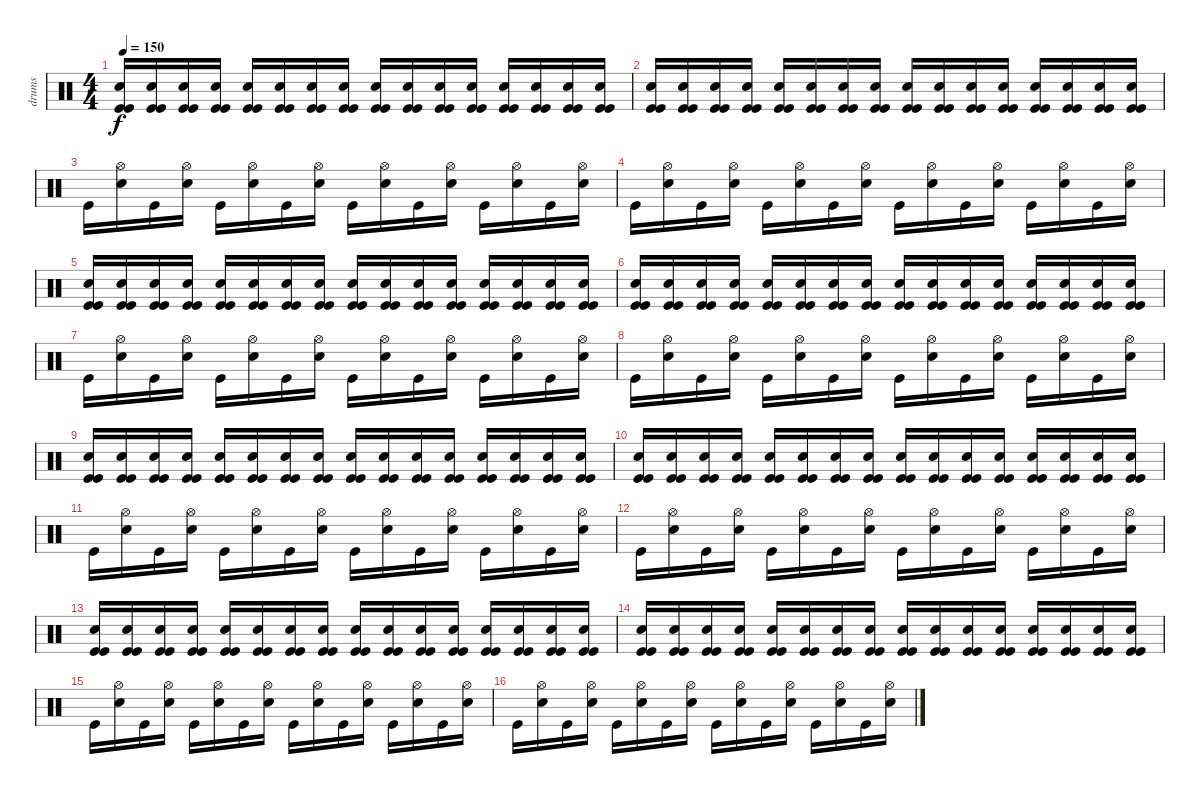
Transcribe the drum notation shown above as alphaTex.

\track ("drums" "drums") {instrument percussion}
\staff {score}
\articulation defaults
\ts (4 4)
\tempo 150
\clef neutral
\ks c
("Electric Snare (hit)" "Kick (hit)" "Kick (hit)").16{dy f} ("Electric Snare (hit)" "Kick (hit)" "Kick (hit)").16 ("Electric Snare (hit)" "Kick (hit)" "Kick (hit)").16 ("Electric Snare (hit)" "Kick (hit)" "Kick (hit)").16 ("Electric Snare (hit)" "Kick (hit)" "Kick (hit)").16 ("Electric Snare (hit)" "Kick (hit)" "Kick (hit)").16 ("Electric Snare (hit)" "Kick (hit)" "Kick (hit)").16 ("Electric Snare (hit)" "Kick (hit)" "Kick (hit)").16 ("Electric Snare (hit)" "Kick (hit)" "Kick (hit)").16 ("Electric Snare (hit)" "Kick (hit)" "Kick (hit)").16 ("Electric Snare (hit)" "Kick (hit)" "Kick (hit)").16 ("Electric Snare (hit)" "Kick (hit)" "Kick (hit)").16 ("Electric Snare (hit)" "Kick (hit)" "Kick (hit)").16 ("Electric Snare (hit)" "Kick (hit)" "Kick (hit)").16 ("Electric Snare (hit)" "Kick (hit)" "Kick (hit)").16 ("Electric Snare (hit)" "Kick (hit)" "Kick (hit)").16 |
("Electric Snare (hit)" "Kick (hit)" "Kick (hit)").16 ("Electric Snare (hit)" "Kick (hit)" "Kick (hit)").16 ("Electric Snare (hit)" "Kick (hit)" "Kick (hit)").16 ("Electric Snare (hit)" "Kick (hit)" "Kick (hit)").16 ("Electric Snare (hit)" "Kick (hit)" "Kick (hit)").16 ("Electric Snare (hit)" "Kick (hit)" "Kick (hit)").16 ("Electric Snare (hit)" "Kick (hit)" "Kick (hit)").16 ("Electric Snare (hit)" "Kick (hit)" "Kick (hit)").16 ("Electric Snare (hit)" "Kick (hit)" "Kick (hit)").16 ("Electric Snare (hit)" "Kick (hit)" "Kick (hit)").16 ("Electric Snare (hit)" "Kick (hit)" "Kick (hit)").16 ("Electric Snare (hit)" "Kick (hit)" "Kick (hit)").16 ("Electric Snare (hit)" "Kick (hit)" "Kick (hit)").16 ("Electric Snare (hit)" "Kick (hit)" "Kick (hit)").16 ("Electric Snare (hit)" "Kick (hit)" "Kick (hit)").16 ("Electric Snare (hit)" "Kick (hit)" "Kick (hit)").16 |
"Kick (hit)".16 ("Hi-Hat (open)" "Electric Snare (hit)").16 "Kick (hit)".16 ("Hi-Hat (open)" "Electric Snare (hit)").16 "Kick (hit)".16 ("Hi-Hat (open)" "Electric Snare (hit)").16 "Kick (hit)".16 ("Hi-Hat (open)" "Electric Snare (hit)").16 "Kick (hit)".16 ("Hi-Hat (open)" "Electric Snare (hit)").16 "Kick (hit)".16 ("Hi-Hat (open)" "Electric Snare (hit)").16 "Kick (hit)".16 ("Hi-Hat (open)" "Electric Snare (hit)").16 "Kick (hit)".16 ("Hi-Hat (open)" "Electric Snare (hit)").16 |
"Kick (hit)".16 ("Hi-Hat (open)" "Electric Snare (hit)").16 "Kick (hit)".16 ("Hi-Hat (open)" "Electric Snare (hit)").16 "Kick (hit)".16 ("Hi-Hat (open)" "Electric Snare (hit)").16 "Kick (hit)".16 ("Hi-Hat (open)" "Electric Snare (hit)").16 "Kick (hit)".16 ("Hi-Hat (open)" "Electric Snare (hit)").16 "Kick (hit)".16 ("Hi-Hat (open)" "Electric Snare (hit)").16 "Kick (hit)".16 ("Hi-Hat (open)" "Electric Snare (hit)").16 "Kick (hit)".16 ("Hi-Hat (open)" "Electric Snare (hit)").16 |
("Electric Snare (hit)" "Kick (hit)" "Kick (hit)").16 ("Electric Snare (hit)" "Kick (hit)" "Kick (hit)").16 ("Electric Snare (hit)" "Kick (hit)" "Kick (hit)").16 ("Electric Snare (hit)" "Kick (hit)" "Kick (hit)").16 ("Electric Snare (hit)" "Kick (hit)" "Kick (hit)").16 ("Electric Snare (hit)" "Kick (hit)" "Kick (hit)").16 ("Electric Snare (hit)" "Kick (hit)" "Kick (hit)").16 ("Electric Snare (hit)" "Kick (hit)" "Kick (hit)").16 ("Electric Snare (hit)" "Kick (hit)" "Kick (hit)").16 ("Electric Snare (hit)" "Kick (hit)" "Kick (hit)").16 ("Electric Snare (hit)" "Kick (hit)" "Kick (hit)").16 ("Electric Snare (hit)" "Kick (hit)" "Kick (hit)").16 ("Electric Snare (hit)" "Kick (hit)" "Kick (hit)").16 ("Electric Snare (hit)" "Kick (hit)" "Kick (hit)").16 ("Electric Snare (hit)" "Kick (hit)" "Kick (hit)").16 ("Electric Snare (hit)" "Kick (hit)" "Kick (hit)").16 |
("Electric Snare (hit)" "Kick (hit)" "Kick (hit)").16 ("Electric Snare (hit)" "Kick (hit)" "Kick (hit)").16 ("Electric Snare (hit)" "Kick (hit)" "Kick (hit)").16 ("Electric Snare (hit)" "Kick (hit)" "Kick (hit)").16 ("Electric Snare (hit)" "Kick (hit)" "Kick (hit)").16 ("Electric Snare (hit)" "Kick (hit)" "Kick (hit)").16 ("Electric Snare (hit)" "Kick (hit)" "Kick (hit)").16 ("Electric Snare (hit)" "Kick (hit)" "Kick (hit)").16 ("Electric Snare (hit)" "Kick (hit)" "Kick (hit)").16 ("Electric Snare (hit)" "Kick (hit)" "Kick (hit)").16 ("Electric Snare (hit)" "Kick (hit)" "Kick (hit)").16 ("Electric Snare (hit)" "Kick (hit)" "Kick (hit)").16 ("Electric Snare (hit)" "Kick (hit)" "Kick (hit)").16 ("Electric Snare (hit)" "Kick (hit)" "Kick (hit)").16 ("Electric Snare (hit)" "Kick (hit)" "Kick (hit)").16 ("Electric Snare (hit)" "Kick (hit)" "Kick (hit)").16 |
"Kick (hit)".16 ("Hi-Hat (open)" "Electric Snare (hit)").16 "Kick (hit)".16 ("Hi-Hat (open)" "Electric Snare (hit)").16 "Kick (hit)".16 ("Hi-Hat (open)" "Electric Snare (hit)").16 "Kick (hit)".16 ("Hi-Hat (open)" "Electric Snare (hit)").16 "Kick (hit)".16 ("Hi-Hat (open)" "Electric Snare (hit)").16 "Kick (hit)".16 ("Hi-Hat (open)" "Electric Snare (hit)").16 "Kick (hit)".16 ("Hi-Hat (open)" "Electric Snare (hit)").16 "Kick (hit)".16 ("Hi-Hat (open)" "Electric Snare (hit)").16 |
"Kick (hit)".16 ("Hi-Hat (open)" "Electric Snare (hit)").16 "Kick (hit)".16 ("Hi-Hat (open)" "Electric Snare (hit)").16 "Kick (hit)".16 ("Hi-Hat (open)" "Electric Snare (hit)").16 "Kick (hit)".16 ("Hi-Hat (open)" "Electric Snare (hit)").16 "Kick (hit)".16 ("Hi-Hat (open)" "Electric Snare (hit)").16 "Kick (hit)".16 ("Hi-Hat (open)" "Electric Snare (hit)").16 "Kick (hit)".16 ("Hi-Hat (open)" "Electric Snare (hit)").16 "Kick (hit)".16 ("Hi-Hat (open)" "Electric Snare (hit)").16 |
("Electric Snare (hit)" "Kick (hit)" "Kick (hit)").16 ("Electric Snare (hit)" "Kick (hit)" "Kick (hit)").16 ("Electric Snare (hit)" "Kick (hit)" "Kick (hit)").16 ("Electric Snare (hit)" "Kick (hit)" "Kick (hit)").16 ("Electric Snare (hit)" "Kick (hit)" "Kick (hit)").16 ("Electric Snare (hit)" "Kick (hit)" "Kick (hit)").16 ("Electric Snare (hit)" "Kick (hit)" "Kick (hit)").16 ("Electric Snare (hit)" "Kick (hit)" "Kick (hit)").16 ("Electric Snare (hit)" "Kick (hit)" "Kick (hit)").16 ("Electric Snare (hit)" "Kick (hit)" "Kick (hit)").16 ("Electric Snare (hit)" "Kick (hit)" "Kick (hit)").16 ("Electric Snare (hit)" "Kick (hit)" "Kick (hit)").16 ("Electric Snare (hit)" "Kick (hit)" "Kick (hit)").16 ("Electric Snare (hit)" "Kick (hit)" "Kick (hit)").16 ("Electric Snare (hit)" "Kick (hit)" "Kick (hit)").16 ("Electric Snare (hit)" "Kick (hit)" "Kick (hit)").16 |
("Electric Snare (hit)" "Kick (hit)" "Kick (hit)").16 ("Electric Snare (hit)" "Kick (hit)" "Kick (hit)").16 ("Electric Snare (hit)" "Kick (hit)" "Kick (hit)").16 ("Electric Snare (hit)" "Kick (hit)" "Kick (hit)").16 ("Electric Snare (hit)" "Kick (hit)" "Kick (hit)").16 ("Electric Snare (hit)" "Kick (hit)" "Kick (hit)").16 ("Electric Snare (hit)" "Kick (hit)" "Kick (hit)").16 ("Electric Snare (hit)" "Kick (hit)" "Kick (hit)").16 ("Electric Snare (hit)" "Kick (hit)" "Kick (hit)").16 ("Electric Snare (hit)" "Kick (hit)" "Kick (hit)").16 ("Electric Snare (hit)" "Kick (hit)" "Kick (hit)").16 ("Electric Snare (hit)" "Kick (hit)" "Kick (hit)").16 ("Electric Snare (hit)" "Kick (hit)" "Kick (hit)").16 ("Electric Snare (hit)" "Kick (hit)" "Kick (hit)").16 ("Electric Snare (hit)" "Kick (hit)" "Kick (hit)").16 ("Electric Snare (hit)" "Kick (hit)" "Kick (hit)").16 |
"Kick (hit)".16 ("Hi-Hat (open)" "Electric Snare (hit)").16 "Kick (hit)".16 ("Hi-Hat (open)" "Electric Snare (hit)").16 "Kick (hit)".16 ("Hi-Hat (open)" "Electric Snare (hit)").16 "Kick (hit)".16 ("Hi-Hat (open)" "Electric Snare (hit)").16 "Kick (hit)".16 ("Hi-Hat (open)" "Electric Snare (hit)").16 "Kick (hit)".16 ("Hi-Hat (open)" "Electric Snare (hit)").16 "Kick (hit)".16 ("Hi-Hat (open)" "Electric Snare (hit)").16 "Kick (hit)".16 ("Hi-Hat (open)" "Electric Snare (hit)").16 |
"Kick (hit)".16 ("Hi-Hat (open)" "Electric Snare (hit)").16 "Kick (hit)".16 ("Hi-Hat (open)" "Electric Snare (hit)").16 "Kick (hit)".16 ("Hi-Hat (open)" "Electric Snare (hit)").16 "Kick (hit)".16 ("Hi-Hat (open)" "Electric Snare (hit)").16 "Kick (hit)".16 ("Hi-Hat (open)" "Electric Snare (hit)").16 "Kick (hit)".16 ("Hi-Hat (open)" "Electric Snare (hit)").16 "Kick (hit)".16 ("Hi-Hat (open)" "Electric Snare (hit)").16 "Kick (hit)".16 ("Hi-Hat (open)" "Electric Snare (hit)").16 |
("Electric Snare (hit)" "Kick (hit)" "Kick (hit)").16 ("Electric Snare (hit)" "Kick (hit)" "Kick (hit)").16 ("Electric Snare (hit)" "Kick (hit)" "Kick (hit)").16 ("Electric Snare (hit)" "Kick (hit)" "Kick (hit)").16 ("Electric Snare (hit)" "Kick (hit)" "Kick (hit)").16 ("Electric Snare (hit)" "Kick (hit)" "Kick (hit)").16 ("Electric Snare (hit)" "Kick (hit)" "Kick (hit)").16 ("Electric Snare (hit)" "Kick (hit)" "Kick (hit)").16 ("Electric Snare (hit)" "Kick (hit)" "Kick (hit)").16 ("Electric Snare (hit)" "Kick (hit)" "Kick (hit)").16 ("Electric Snare (hit)" "Kick (hit)" "Kick (hit)").16 ("Electric Snare (hit)" "Kick (hit)" "Kick (hit)").16 ("Electric Snare (hit)" "Kick (hit)" "Kick (hit)").16 ("Electric Snare (hit)" "Kick (hit)" "Kick (hit)").16 ("Electric Snare (hit)" "Kick (hit)" "Kick (hit)").16 ("Electric Snare (hit)" "Kick (hit)" "Kick (hit)").16 |
("Electric Snare (hit)" "Kick (hit)" "Kick (hit)").16 ("Electric Snare (hit)" "Kick (hit)" "Kick (hit)").16 ("Electric Snare (hit)" "Kick (hit)" "Kick (hit)").16 ("Electric Snare (hit)" "Kick (hit)" "Kick (hit)").16 ("Electric Snare (hit)" "Kick (hit)" "Kick (hit)").16 ("Electric Snare (hit)" "Kick (hit)" "Kick (hit)").16 ("Electric Snare (hit)" "Kick (hit)" "Kick (hit)").16 ("Electric Snare (hit)" "Kick (hit)" "Kick (hit)").16 ("Electric Snare (hit)" "Kick (hit)" "Kick (hit)").16 ("Electric Snare (hit)" "Kick (hit)" "Kick (hit)").16 ("Electric Snare (hit)" "Kick (hit)" "Kick (hit)").16 ("Electric Snare (hit)" "Kick (hit)" "Kick (hit)").16 ("Electric Snare (hit)" "Kick (hit)" "Kick (hit)").16 ("Electric Snare (hit)" "Kick (hit)" "Kick (hit)").16 ("Electric Snare (hit)" "Kick (hit)" "Kick (hit)").16 ("Electric Snare (hit)" "Kick (hit)" "Kick (hit)").16 |
"Kick (hit)".16 ("Hi-Hat (open)" "Electric Snare (hit)").16 "Kick (hit)".16 ("Hi-Hat (open)" "Electric Snare (hit)").16 "Kick (hit)".16 ("Hi-Hat (open)" "Electric Snare (hit)").16 "Kick (hit)".16 ("Hi-Hat (open)" "Electric Snare (hit)").16 "Kick (hit)".16 ("Hi-Hat (open)" "Electric Snare (hit)").16 "Kick (hit)".16 ("Hi-Hat (open)" "Electric Snare (hit)").16 "Kick (hit)".16 ("Hi-Hat (open)" "Electric Snare (hit)").16 "Kick (hit)".16 ("Hi-Hat (open)" "Electric Snare (hit)").16 |
"Kick (hit)".16 ("Hi-Hat (open)" "Electric Snare (hit)").16 "Kick (hit)".16 ("Hi-Hat (open)" "Electric Snare (hit)").16 "Kick (hit)".16 ("Hi-Hat (open)" "Electric Snare (hit)").16 "Kick (hit)".16 ("Hi-Hat (open)" "Electric Snare (hit)").16 "Kick (hit)".16 ("Hi-Hat (open)" "Electric Snare (hit)").16 "Kick (hit)".16 ("Hi-Hat (open)" "Electric Snare (hit)").16 "Kick (hit)".16 ("Hi-Hat (open)" "Electric Snare (hit)").16 "Kick (hit)".16 ("Hi-Hat (open)" "Electric Snare (hit)").16
